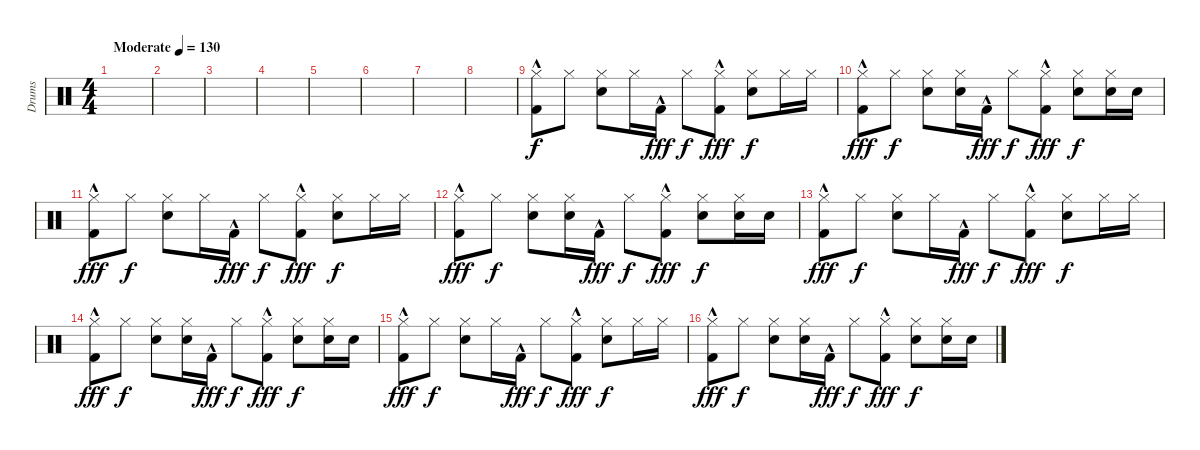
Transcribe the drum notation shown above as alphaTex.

\track ("Drums" "Drums") {instrument percussion}
\staff {score}
\articulation defaults
\ts (4 4)
\tempo (130 "Moderate")
\clef neutral
\ks c
|
|
|
|
|
|
|
|
("Hi-Hat (closed)" "Kick (hit) 2"{hac}).8 "Hi-Hat (closed)".8{dy f} ("Hi-Hat (closed)" "Snare (hit) 2").8 "Hi-Hat (closed)".16 "Kick (hit) 2"{hac}.16{dy fff} "Hi-Hat (closed)".8{dy f} ("Hi-Hat (closed)" "Kick (hit) 2"{hac}).8{dy fff} ("Hi-Hat (closed)" "Snare (hit) 2").8{dy f} "Hi-Hat (closed)".16 "Hi-Hat (closed)".16 |
("Hi-Hat (closed)" "Kick (hit) 2"{hac}).8{dy fff} "Hi-Hat (closed)".8{dy f} ("Hi-Hat (closed)" "Snare (hit) 2").8 ("Hi-Hat (closed)" "Snare (hit) 2").16 "Kick (hit) 2"{hac}.16{dy fff} "Hi-Hat (closed)".8{dy f} ("Hi-Hat (closed)" "Kick (hit) 2"{hac}).8{dy fff} ("Hi-Hat (closed)" "Snare (hit) 2").8{dy f} ("Hi-Hat (closed)" "Snare (hit) 2").16 "Snare (hit) 2".16 |
("Hi-Hat (closed)" "Kick (hit) 2"{hac}).8{dy fff} "Hi-Hat (closed)".8{dy f} ("Hi-Hat (closed)" "Snare (hit) 2").8 "Hi-Hat (closed)".16 "Kick (hit) 2"{hac}.16{dy fff} "Hi-Hat (closed)".8{dy f} ("Hi-Hat (closed)" "Kick (hit) 2"{hac}).8{dy fff} ("Hi-Hat (closed)" "Snare (hit) 2").8{dy f} "Hi-Hat (closed)".16 "Hi-Hat (closed)".16 |
("Hi-Hat (closed)" "Kick (hit) 2"{hac}).8{dy fff} "Hi-Hat (closed)".8{dy f} ("Hi-Hat (closed)" "Snare (hit) 2").8 ("Hi-Hat (closed)" "Snare (hit) 2").16 "Kick (hit) 2"{hac}.16{dy fff} "Hi-Hat (closed)".8{dy f} ("Hi-Hat (closed)" "Kick (hit) 2"{hac}).8{dy fff} ("Hi-Hat (closed)" "Snare (hit) 2").8{dy f} ("Hi-Hat (closed)" "Snare (hit) 2").16 "Snare (hit) 2".16 |
("Hi-Hat (closed)" "Kick (hit) 2"{hac}).8{dy fff} "Hi-Hat (closed)".8{dy f} ("Hi-Hat (closed)" "Snare (hit) 2").8 "Hi-Hat (closed)".16 "Kick (hit) 2"{hac}.16{dy fff} "Hi-Hat (closed)".8{dy f} ("Hi-Hat (closed)" "Kick (hit) 2"{hac}).8{dy fff} ("Hi-Hat (closed)" "Snare (hit) 2").8{dy f} "Hi-Hat (closed)".16 "Hi-Hat (closed)".16 |
("Hi-Hat (closed)" "Kick (hit) 2"{hac}).8{dy fff} "Hi-Hat (closed)".8{dy f} ("Hi-Hat (closed)" "Snare (hit) 2").8 ("Hi-Hat (closed)" "Snare (hit) 2").16 "Kick (hit) 2"{hac}.16{dy fff} "Hi-Hat (closed)".8{dy f} ("Hi-Hat (closed)" "Kick (hit) 2"{hac}).8{dy fff} ("Hi-Hat (closed)" "Snare (hit) 2").8{dy f} ("Hi-Hat (closed)" "Snare (hit) 2").16 "Snare (hit) 2".16 |
("Hi-Hat (closed)" "Kick (hit) 2"{hac}).8{dy fff} "Hi-Hat (closed)".8{dy f} ("Hi-Hat (closed)" "Snare (hit) 2").8 "Hi-Hat (closed)".16 "Kick (hit) 2"{hac}.16{dy fff} "Hi-Hat (closed)".8{dy f} ("Hi-Hat (closed)" "Kick (hit) 2"{hac}).8{dy fff} ("Hi-Hat (closed)" "Snare (hit) 2").8{dy f} "Hi-Hat (closed)".16 "Hi-Hat (closed)".16 |
("Hi-Hat (closed)" "Kick (hit) 2"{hac}).8{dy fff} "Hi-Hat (closed)".8{dy f} ("Hi-Hat (closed)" "Snare (hit) 2").8 ("Hi-Hat (closed)" "Snare (hit) 2").16 "Kick (hit) 2"{hac}.16{dy fff} "Hi-Hat (closed)".8{dy f} ("Hi-Hat (closed)" "Kick (hit) 2"{hac}).8{dy fff} ("Hi-Hat (closed)" "Snare (hit) 2").8{dy f} ("Hi-Hat (closed)" "Snare (hit) 2").16 "Snare (hit) 2".16
